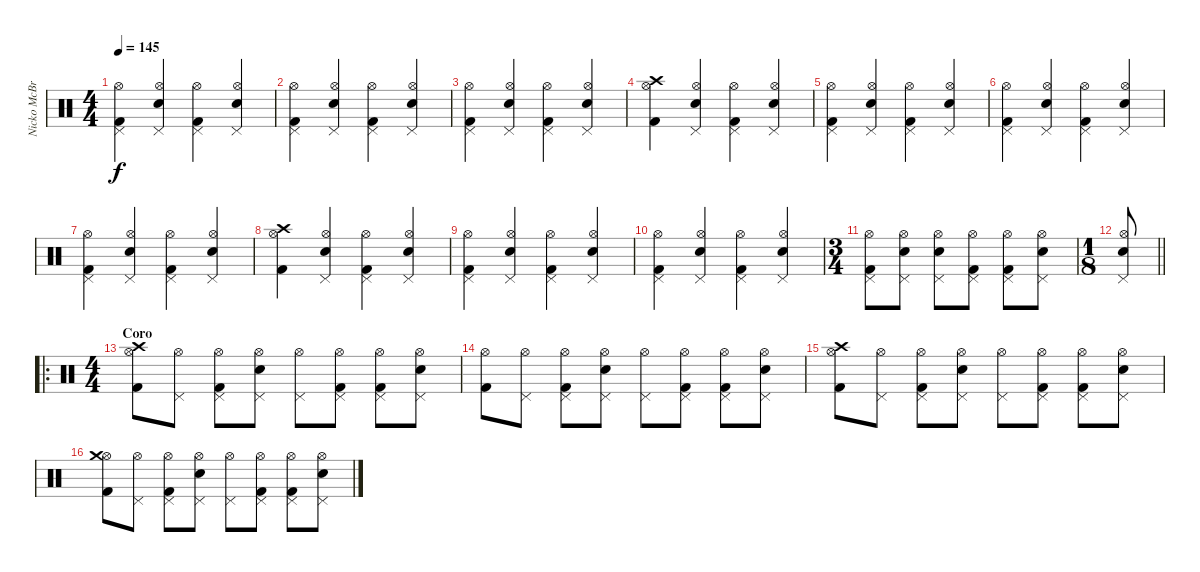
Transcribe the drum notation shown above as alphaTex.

\track ("Nicko McBrain" "Nicko McBr") {instrument percussion}
\staff {score}
\articulation defaults
\ts (4 4)
\tempo 145
\clef neutral
\ks c
("Kick (hit) 2" "Pedal Hi-Hat (hit)" "Hi-Hat (open)").4{dy f} ("Snare (hit) 2" "Pedal Hi-Hat (hit)" "Hi-Hat (open)").4 ("Kick (hit) 2" "Pedal Hi-Hat (hit)" "Hi-Hat (open)").4 ("Snare (hit) 2" "Pedal Hi-Hat (hit)" "Hi-Hat (open)").4 |
("Kick (hit) 2" "Pedal Hi-Hat (hit)" "Hi-Hat (open)").4 ("Snare (hit) 2" "Pedal Hi-Hat (hit)" "Hi-Hat (open)").4 ("Kick (hit) 2" "Pedal Hi-Hat (hit)" "Hi-Hat (open)").4 ("Snare (hit) 2" "Pedal Hi-Hat (hit)" "Hi-Hat (open)").4 |
("Kick (hit) 2" "Pedal Hi-Hat (hit)" "Hi-Hat (open)").4 ("Snare (hit) 2" "Pedal Hi-Hat (hit)" "Hi-Hat (open)").4 ("Kick (hit) 2" "Pedal Hi-Hat (hit)" "Hi-Hat (open)").4 ("Snare (hit) 2" "Pedal Hi-Hat (hit)" "Hi-Hat (open)").4 |
("Kick (hit) 2" "Hi-Hat (open)" "Crash high (hit)").4 ("Snare (hit) 2" "Pedal Hi-Hat (hit)" "Hi-Hat (open)").4 ("Kick (hit) 2" "Pedal Hi-Hat (hit)" "Hi-Hat (open)").4 ("Snare (hit) 2" "Pedal Hi-Hat (hit)" "Hi-Hat (open)").4 |
("Kick (hit) 2" "Pedal Hi-Hat (hit)" "Hi-Hat (open)").4 ("Snare (hit) 2" "Pedal Hi-Hat (hit)" "Hi-Hat (open)").4 ("Kick (hit) 2" "Pedal Hi-Hat (hit)" "Hi-Hat (open)").4 ("Snare (hit) 2" "Pedal Hi-Hat (hit)" "Hi-Hat (open)").4 |
("Kick (hit) 2" "Pedal Hi-Hat (hit)" "Hi-Hat (open)").4 ("Snare (hit) 2" "Pedal Hi-Hat (hit)" "Hi-Hat (open)").4 ("Kick (hit) 2" "Pedal Hi-Hat (hit)" "Hi-Hat (open)").4 ("Snare (hit) 2" "Pedal Hi-Hat (hit)" "Hi-Hat (open)").4 |
("Kick (hit) 2" "Pedal Hi-Hat (hit)" "Hi-Hat (open)").4 ("Snare (hit) 2" "Pedal Hi-Hat (hit)" "Hi-Hat (open)").4 ("Kick (hit) 2" "Pedal Hi-Hat (hit)" "Hi-Hat (open)").4 ("Snare (hit) 2" "Pedal Hi-Hat (hit)" "Hi-Hat (open)").4 |
("Kick (hit) 2" "Hi-Hat (open)" "Crash high (hit)").4 ("Snare (hit) 2" "Pedal Hi-Hat (hit)" "Hi-Hat (open)").4 ("Kick (hit) 2" "Pedal Hi-Hat (hit)" "Hi-Hat (open)").4 ("Snare (hit) 2" "Pedal Hi-Hat (hit)" "Hi-Hat (open)").4 |
("Kick (hit) 2" "Pedal Hi-Hat (hit)" "Hi-Hat (open)").4 ("Snare (hit) 2" "Pedal Hi-Hat (hit)" "Hi-Hat (open)").4 ("Kick (hit) 2" "Pedal Hi-Hat (hit)" "Hi-Hat (open)").4 ("Snare (hit) 2" "Pedal Hi-Hat (hit)" "Hi-Hat (open)").4 |
("Kick (hit) 2" "Pedal Hi-Hat (hit)" "Hi-Hat (open)").4 ("Snare (hit) 2" "Pedal Hi-Hat (hit)" "Hi-Hat (open)").4 ("Kick (hit) 2" "Pedal Hi-Hat (hit)" "Hi-Hat (open)").4 ("Snare (hit) 2" "Pedal Hi-Hat (hit)" "Hi-Hat (open)").4 |
\ts (3 4)
("Kick (hit) 2" "Pedal Hi-Hat (hit)" "Hi-Hat (open)").8 ("Snare (hit) 2" "Pedal Hi-Hat (hit)" "Hi-Hat (open)").8 ("Snare (hit) 2" "Pedal Hi-Hat (hit)" "Hi-Hat (open)").8 ("Kick (hit) 2" "Pedal Hi-Hat (hit)" "Hi-Hat (open)").8 ("Kick (hit) 2" "Pedal Hi-Hat (hit)" "Hi-Hat (open)").8 ("Snare (hit) 2" "Pedal Hi-Hat (hit)" "Hi-Hat (open)").8 |
\ts (1 8)
\barLineRight lightlight
("Snare (hit) 2" "Pedal Hi-Hat (hit)" "Hi-Hat (open)").8 |
\ro
\ts (4 4)
\section ("" "Coro")
("Kick (hit) 2" "Hi-Hat (open)" "Crash high (hit)").8 ("Pedal Hi-Hat (hit)" "Hi-Hat (open)").8 ("Kick (hit) 2" "Pedal Hi-Hat (hit)" "Hi-Hat (open)").8 ("Snare (hit) 2" "Pedal Hi-Hat (hit)" "Hi-Hat (open)").8 ("Pedal Hi-Hat (hit)" "Hi-Hat (open)").8 ("Kick (hit) 2" "Pedal Hi-Hat (hit)" "Hi-Hat (open)").8 ("Kick (hit) 2" "Pedal Hi-Hat (hit)" "Hi-Hat (open)").8 ("Snare (hit) 2" "Pedal Hi-Hat (hit)" "Hi-Hat (open)").8 |
("Kick (hit) 2" "Hi-Hat (open)").8 ("Pedal Hi-Hat (hit)" "Hi-Hat (open)").8 ("Kick (hit) 2" "Pedal Hi-Hat (hit)" "Hi-Hat (open)").8 ("Snare (hit) 2" "Pedal Hi-Hat (hit)" "Hi-Hat (open)").8 ("Pedal Hi-Hat (hit)" "Hi-Hat (open)").8 ("Kick (hit) 2" "Pedal Hi-Hat (hit)" "Hi-Hat (open)").8 ("Kick (hit) 2" "Pedal Hi-Hat (hit)" "Hi-Hat (open)").8 ("Snare (hit) 2" "Pedal Hi-Hat (hit)" "Hi-Hat (open)").8 |
("Kick (hit) 2" "Hi-Hat (open)" "Crash high (hit)").8 ("Pedal Hi-Hat (hit)" "Hi-Hat (open)").8 ("Kick (hit) 2" "Pedal Hi-Hat (hit)" "Hi-Hat (open)").8 ("Snare (hit) 2" "Pedal Hi-Hat (hit)" "Hi-Hat (open)").8 ("Pedal Hi-Hat (hit)" "Hi-Hat (open)").8 ("Kick (hit) 2" "Pedal Hi-Hat (hit)" "Hi-Hat (open)").8 ("Kick (hit) 2" "Pedal Hi-Hat (hit)" "Hi-Hat (open)").8 ("Snare (hit) 2" "Pedal Hi-Hat (hit)" "Hi-Hat (open)").8 |
("Kick (hit) 2" "Hi-Hat (open)" "Crash medium (hit)").8 ("Pedal Hi-Hat (hit)" "Hi-Hat (open)").8 ("Kick (hit) 2" "Pedal Hi-Hat (hit)" "Hi-Hat (open)").8 ("Snare (hit) 2" "Pedal Hi-Hat (hit)" "Hi-Hat (open)").8 ("Pedal Hi-Hat (hit)" "Hi-Hat (open)").8 ("Kick (hit) 2" "Pedal Hi-Hat (hit)" "Hi-Hat (open)").8 ("Kick (hit) 2" "Pedal Hi-Hat (hit)" "Hi-Hat (open)").8 ("Snare (hit) 2" "Pedal Hi-Hat (hit)" "Hi-Hat (open)").8
